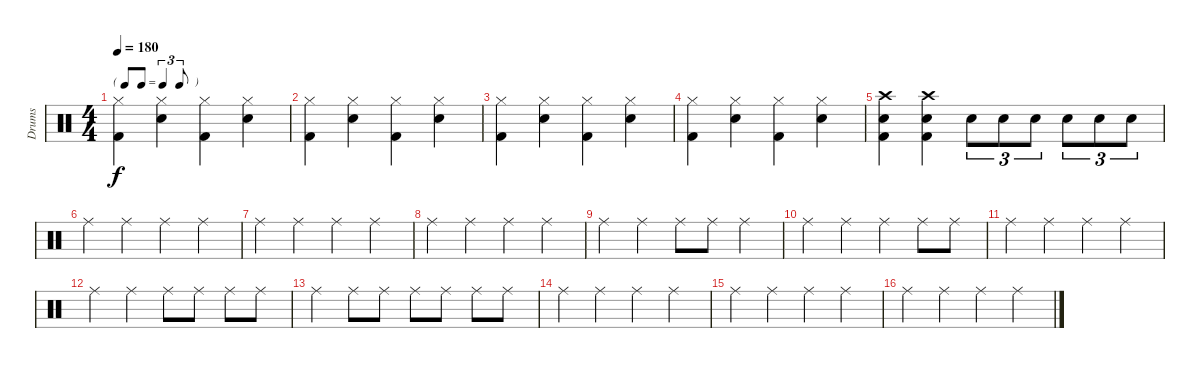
\track ("Drums" "Drums") {instrument percussion}
\staff {score}
\articulation defaults
\ts (4 4)
\tf triplet8th
\tempo 180
\clef neutral
\ks c
("Hi-Hat (closed)" "Kick (hit) 2").4{dy f} ("Hi-Hat (closed)" "Snare (hit) 2").4 ("Hi-Hat (closed)" "Kick (hit) 2").4 ("Hi-Hat (closed)" "Snare (hit) 2").4 |
("Hi-Hat (closed)" "Kick (hit) 2").4 ("Hi-Hat (closed)" "Snare (hit) 2").4 ("Hi-Hat (closed)" "Kick (hit) 2").4 ("Hi-Hat (closed)" "Snare (hit) 2").4 |
("Hi-Hat (closed)" "Kick (hit) 2").4 ("Hi-Hat (closed)" "Snare (hit) 2").4 ("Hi-Hat (closed)" "Kick (hit) 2").4 ("Hi-Hat (closed)" "Snare (hit) 2").4 |
("Hi-Hat (closed)" "Kick (hit) 2").4 ("Hi-Hat (closed)" "Snare (hit) 2").4 ("Hi-Hat (closed)" "Kick (hit) 2").4 ("Hi-Hat (closed)" "Snare (hit) 2").4 |
("Crash high (hit)" "Snare (hit) 2" "Kick (hit) 2").4 ("Crash high (hit)" "Snare (hit) 2" "Kick (hit) 2").4 "Snare (hit) 2".8{tu (3 2)} "Snare (hit) 2".8{tu (3 2)} "Snare (hit) 2".8{tu (3 2)} "Snare (hit) 2".8{tu (3 2)} "Snare (hit) 2".8{tu (3 2)} "Snare (hit) 2".8{tu (3 2)} |
"Ride (middle)".4 "Ride (middle)".4 "Ride (middle)".4 "Ride (middle)".4 |
"Ride (middle)".4 "Ride (middle)".4 "Ride (middle)".4 "Ride (middle)".4 |
"Ride (middle)".4 "Ride (middle)".4 "Ride (middle)".4 "Ride (middle)".4 |
"Ride (middle)".4 "Ride (middle)".4 "Ride (middle)".8 "Ride (middle)".8 "Ride (middle)".4 |
"Ride (middle)".4 "Ride (middle)".4 "Ride (middle)".4 "Ride (middle)".8 "Ride (middle)".8 |
"Ride (middle)".4 "Ride (middle)".4 "Ride (middle)".4 "Ride (middle)".4 |
"Ride (middle)".4 "Ride (middle)".4 "Ride (middle)".8 "Ride (middle)".8 "Ride (middle)".8 "Ride (middle)".8 |
"Ride (middle)".4 "Ride (middle)".8 "Ride (middle)".8 "Ride (middle)".8 "Ride (middle)".8 "Ride (middle)".8 "Ride (middle)".8 |
"Ride (middle)".4 "Ride (middle)".4 "Ride (middle)".4 "Ride (middle)".4 |
"Ride (middle)".4 "Ride (middle)".4 "Ride (middle)".4 "Ride (middle)".4 |
"Ride (middle)".4 "Ride (middle)".4 "Ride (middle)".4 "Ride (middle)".4
